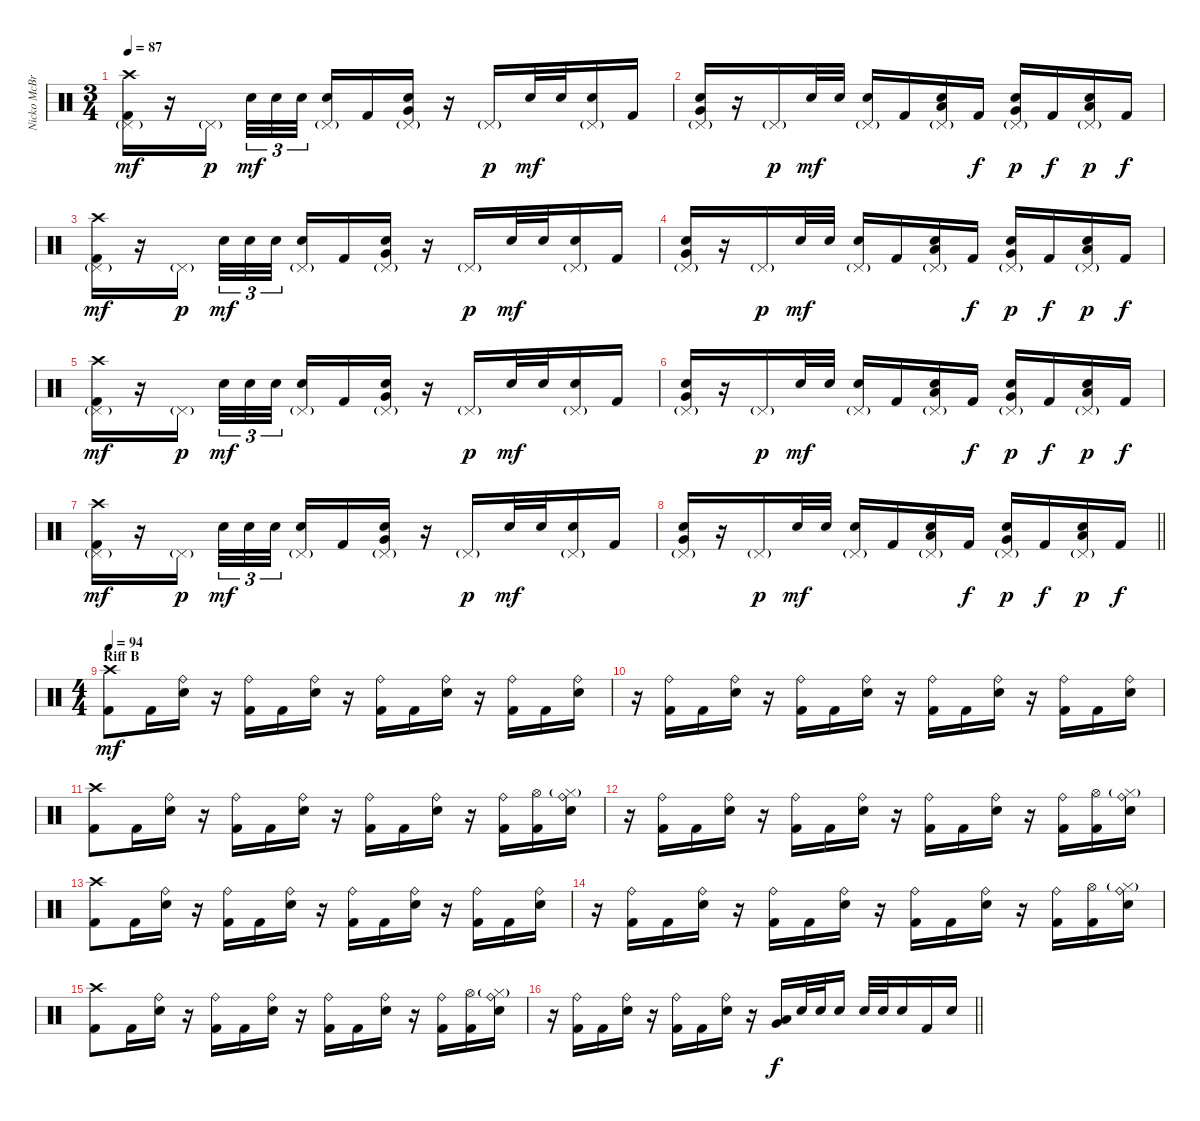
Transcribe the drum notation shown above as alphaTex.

\track ("Nicko McBrian" "Nicko McBr") {instrument percussion}
\staff {score}
\articulation defaults
\ts (3 4)
\tempo 87
\clef neutral
\ks c
("Crash high (hit)" "Pedal Hi-Hat (hit)"{g} "Kick (hit) 2").16{dy mf} r.16 "Pedal Hi-Hat (hit)"{g}.16{dy p beam splitsecondary} "Snare (hit) 2".32{tu (3 2) dy mf} "Snare (hit) 2".32{tu (3 2)} "Snare (hit) 2".32{tu (3 2)} ("Pedal Hi-Hat (hit)"{g} "Snare (hit) 2").16 "Kick (hit) 2".16 ("Very Low Tom (hit)" "Pedal Hi-Hat (hit)"{g} "Snare (hit) 2").16 r.16 "Pedal Hi-Hat (hit)"{g}.16{dy p} "Snare (hit) 2".32{dy mf} "Snare (hit) 2".32 ("Pedal Hi-Hat (hit)"{g} "Snare (hit) 2").16 "Kick (hit) 2".16 |
("Very Low Tom (hit)" "Pedal Hi-Hat (hit)"{g} "Snare (hit) 2").16 r.16 "Pedal Hi-Hat (hit)"{g}.16{dy p} "Snare (hit) 2".32{dy mf} "Snare (hit) 2".32 ("Pedal Hi-Hat (hit)"{g} "Snare (hit) 2").16 "Kick (hit) 2".16 ("Low Tom (hit)" "Pedal Hi-Hat (hit)"{g} "Snare (hit) 2").16 "Kick (hit) 2".16{dy f} ("Very Low Tom (hit)" "Pedal Hi-Hat (hit)"{g} "Snare (hit) 2").16{dy p} "Kick (hit) 2".16{dy f} ("Low Floor Tom (hit)" "Pedal Hi-Hat (hit)"{g} "Snare (hit) 2").16{dy p} "Kick (hit) 2".16{dy f} |
("Crash high (hit)" "Pedal Hi-Hat (hit)"{g} "Kick (hit) 2").16{dy mf} r.16 "Pedal Hi-Hat (hit)"{g}.16{dy p beam splitsecondary} "Snare (hit) 2".32{tu (3 2) dy mf} "Snare (hit) 2".32{tu (3 2)} "Snare (hit) 2".32{tu (3 2)} ("Pedal Hi-Hat (hit)"{g} "Snare (hit) 2").16 "Kick (hit) 2".16 ("Very Low Tom (hit)" "Pedal Hi-Hat (hit)"{g} "Snare (hit) 2").16 r.16 "Pedal Hi-Hat (hit)"{g}.16{dy p} "Snare (hit) 2".32{dy mf} "Snare (hit) 2".32 ("Pedal Hi-Hat (hit)"{g} "Snare (hit) 2").16 "Kick (hit) 2".16 |
("Very Low Tom (hit)" "Pedal Hi-Hat (hit)"{g} "Snare (hit) 2").16 r.16 "Pedal Hi-Hat (hit)"{g}.16{dy p} "Snare (hit) 2".32{dy mf} "Snare (hit) 2".32 ("Pedal Hi-Hat (hit)"{g} "Snare (hit) 2").16 "Kick (hit) 2".16 ("Low Tom (hit)" "Pedal Hi-Hat (hit)"{g} "Snare (hit) 2").16 "Kick (hit) 2".16{dy f} ("Very Low Tom (hit)" "Pedal Hi-Hat (hit)"{g} "Snare (hit) 2").16{dy p} "Kick (hit) 2".16{dy f} ("Low Floor Tom (hit)" "Pedal Hi-Hat (hit)"{g} "Snare (hit) 2").16{dy p} "Kick (hit) 2".16{dy f} |
("Crash high (hit)" "Pedal Hi-Hat (hit)"{g} "Kick (hit) 2").16{dy mf} r.16 "Pedal Hi-Hat (hit)"{g}.16{dy p beam splitsecondary} "Snare (hit) 2".32{tu (3 2) dy mf} "Snare (hit) 2".32{tu (3 2)} "Snare (hit) 2".32{tu (3 2)} ("Pedal Hi-Hat (hit)"{g} "Snare (hit) 2").16 "Kick (hit) 2".16 ("Very Low Tom (hit)" "Pedal Hi-Hat (hit)"{g} "Snare (hit) 2").16 r.16 "Pedal Hi-Hat (hit)"{g}.16{dy p} "Snare (hit) 2".32{dy mf} "Snare (hit) 2".32 ("Pedal Hi-Hat (hit)"{g} "Snare (hit) 2").16 "Kick (hit) 2".16 |
("Very Low Tom (hit)" "Pedal Hi-Hat (hit)"{g} "Snare (hit) 2").16 r.16 "Pedal Hi-Hat (hit)"{g}.16{dy p} "Snare (hit) 2".32{dy mf} "Snare (hit) 2".32 ("Pedal Hi-Hat (hit)"{g} "Snare (hit) 2").16 "Kick (hit) 2".16 ("Low Tom (hit)" "Pedal Hi-Hat (hit)"{g} "Snare (hit) 2").16 "Kick (hit) 2".16{dy f} ("Very Low Tom (hit)" "Pedal Hi-Hat (hit)"{g} "Snare (hit) 2").16{dy p} "Kick (hit) 2".16{dy f} ("Low Floor Tom (hit)" "Pedal Hi-Hat (hit)"{g} "Snare (hit) 2").16{dy p} "Kick (hit) 2".16{dy f} |
("Crash high (hit)" "Pedal Hi-Hat (hit)"{g} "Kick (hit) 2").16{dy mf} r.16 "Pedal Hi-Hat (hit)"{g}.16{dy p beam splitsecondary} "Snare (hit) 2".32{tu (3 2) dy mf} "Snare (hit) 2".32{tu (3 2)} "Snare (hit) 2".32{tu (3 2)} ("Pedal Hi-Hat (hit)"{g} "Snare (hit) 2").16 "Kick (hit) 2".16 ("Very Low Tom (hit)" "Pedal Hi-Hat (hit)"{g} "Snare (hit) 2").16 r.16 "Pedal Hi-Hat (hit)"{g}.16{dy p} "Snare (hit) 2".32{dy mf} "Snare (hit) 2".32 ("Pedal Hi-Hat (hit)"{g} "Snare (hit) 2").16 "Kick (hit) 2".16 |
\barLineRight lightlight
("Very Low Tom (hit)" "Pedal Hi-Hat (hit)"{g} "Snare (hit) 2").16 r.16 "Pedal Hi-Hat (hit)"{g}.16{dy p} "Snare (hit) 2".32{dy mf} "Snare (hit) 2".32 ("Pedal Hi-Hat (hit)"{g} "Snare (hit) 2").16 "Kick (hit) 2".16 ("Low Tom (hit)" "Pedal Hi-Hat (hit)"{g} "Snare (hit) 2").16 "Kick (hit) 2".16{dy f} ("Very Low Tom (hit)" "Pedal Hi-Hat (hit)"{g} "Snare (hit) 2").16{dy p} "Kick (hit) 2".16{dy f} ("Low Floor Tom (hit)" "Pedal Hi-Hat (hit)"{g} "Snare (hit) 2").16{dy p} "Kick (hit) 2".16{dy f} |
\ts (4 4)
\section ("" "Riff B")
\tempo 94
("Crash high (hit)" "Kick (hit) 2").8{dy mf} "Kick (hit) 2".16 ("Ride (bell)" "Snare (hit) 2").16 r.16 ("Ride (bell)" "Kick (hit) 2").16 "Kick (hit) 2".16 ("Ride (bell)" "Snare (hit) 2").16 r.16 ("Ride (bell)" "Kick (hit) 2").16 "Kick (hit) 2".16 ("Ride (bell)" "Snare (hit) 2").16 r.16 ("Ride (bell)" "Kick (hit) 2").16 "Kick (hit) 2".16 ("Ride (bell)" "Snare (hit) 2").16 |
r.16 ("Ride (bell)" "Kick (hit) 2").16 "Kick (hit) 2".16 ("Ride (bell)" "Snare (hit) 2").16 r.16 ("Ride (bell)" "Kick (hit) 2").16 "Kick (hit) 2".16 ("Ride (bell)" "Snare (hit) 2").16 r.16 ("Ride (bell)" "Kick (hit) 2").16 "Kick (hit) 2".16 ("Ride (bell)" "Snare (hit) 2").16 r.16 ("Ride (bell)" "Kick (hit) 2").16 "Kick (hit) 2".16 ("Ride (bell)" "Snare (hit) 2").16 |
("Crash high (hit)" "Kick (hit) 2").8 "Kick (hit) 2".16 ("Ride (bell)" "Snare (hit) 2").16 r.16 ("Ride (bell)" "Kick (hit) 2").16 "Kick (hit) 2".16 ("Ride (bell)" "Snare (hit) 2").16 r.16 ("Ride (bell)" "Kick (hit) 2").16 "Kick (hit) 2".16 ("Ride (bell)" "Snare (hit) 2").16 r.16 ("Ride (bell)" "Kick (hit) 2").16 ("Hi-Hat (open)" "Kick (hit) 2").16 ("Ride (bell)" "Hi-Hat (closed)"{g} "Snare (hit) 2").16 |
r.16 ("Ride (bell)" "Kick (hit) 2").16 "Kick (hit) 2".16 ("Ride (bell)" "Snare (hit) 2").16 r.16 ("Ride (bell)" "Kick (hit) 2").16 "Kick (hit) 2".16 ("Ride (bell)" "Snare (hit) 2").16 r.16 ("Ride (bell)" "Kick (hit) 2").16 "Kick (hit) 2".16 ("Ride (bell)" "Snare (hit) 2").16 r.16 ("Ride (bell)" "Kick (hit) 2").16 ("Hi-Hat (open)" "Kick (hit) 2").16 ("Ride (bell)" "Hi-Hat (closed)"{g} "Snare (hit) 2").16 |
("Crash high (hit)" "Kick (hit) 2").8 "Kick (hit) 2".16 ("Ride (bell)" "Snare (hit) 2").16 r.16 ("Ride (bell)" "Kick (hit) 2").16 "Kick (hit) 2".16 ("Ride (bell)" "Snare (hit) 2").16 r.16 ("Ride (bell)" "Kick (hit) 2").16 "Kick (hit) 2".16 ("Ride (bell)" "Snare (hit) 2").16 r.16 ("Ride (bell)" "Kick (hit) 2").16 "Kick (hit) 2".16 ("Ride (bell)" "Snare (hit) 2").16 |
r.16 ("Ride (bell)" "Kick (hit) 2").16 "Kick (hit) 2".16 ("Ride (bell)" "Snare (hit) 2").16 r.16 ("Ride (bell)" "Kick (hit) 2").16 "Kick (hit) 2".16 ("Ride (bell)" "Snare (hit) 2").16 r.16 ("Ride (bell)" "Kick (hit) 2").16 "Kick (hit) 2".16 ("Ride (bell)" "Snare (hit) 2").16 r.16 ("Ride (bell)" "Kick (hit) 2").16 ("Hi-Hat (open)" "Kick (hit) 2").16 ("Ride (bell)" "Hi-Hat (closed)"{g} "Snare (hit) 2").16 |
("Crash high (hit)" "Kick (hit) 2").8 "Kick (hit) 2".16 ("Ride (bell)" "Snare (hit) 2").16 r.16 ("Ride (bell)" "Kick (hit) 2").16 "Kick (hit) 2".16 ("Ride (bell)" "Snare (hit) 2").16 r.16 ("Ride (bell)" "Kick (hit) 2").16 "Kick (hit) 2".16 ("Ride (bell)" "Snare (hit) 2").16 r.16 ("Ride (bell)" "Kick (hit) 2").16 ("Hi-Hat (open)" "Kick (hit) 2").16 ("Ride (bell)" "Hi-Hat (closed)"{g} "Snare (hit) 2").16 |
\barLineRight lightlight
r.16 ("Ride (bell)" "Kick (hit) 2").16 "Kick (hit) 2".16 ("Ride (bell)" "Snare (hit) 2").16 r.16 ("Ride (bell)" "Kick (hit) 2").16 "Kick (hit) 2".16 ("Ride (bell)" "Snare (hit) 2").16 r.16 ("Low Tom (hit)" "Very Low Tom (hit)").16{dy f} "Snare (hit) 2".32 "Snare (hit) 2".32 "Snare (hit) 2".16 "Snare (hit) 2".32 "Snare (hit) 2".32 "Snare (hit) 2".16 "Kick (hit) 2".16 "Snare (hit) 2".16
